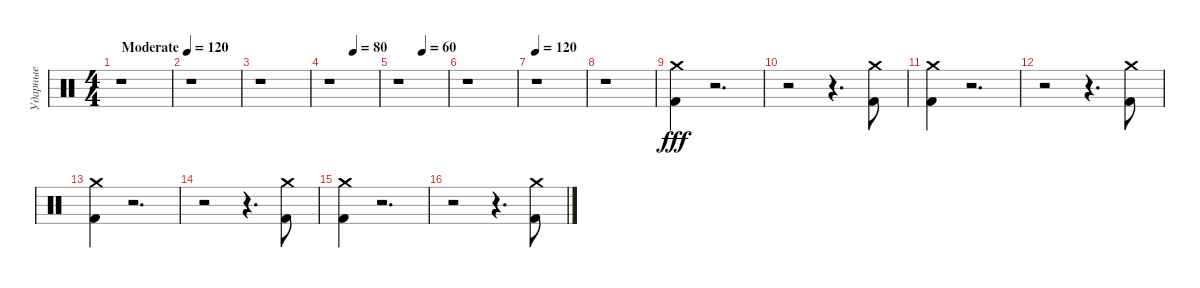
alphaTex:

\track ("Ударные" "Ударные") {instrument percussion}
\staff {score}
\articulation defaults
\ts (4 4)
\tempo (120 "Moderate")
\clef neutral
\ks c
r.1{dy fff} |
r.1 |
r.1 |
\tempo (80 0.5)
r.1 |
\tempo (60 0.5)
r.1 |
r.1 |
\tempo 120
r.1 |
r.1 |
("Crash medium (hit)" "Kick (hit) 2").4 r.2{d} |
r.2 r.4{d} ("Crash medium (hit)" "Kick (hit) 2").8 |
("Crash medium (hit)" "Kick (hit) 2").4 r.2{d} |
r.2 r.4{d} ("Crash medium (hit)" "Kick (hit) 2").8 |
("Crash medium (hit)" "Kick (hit) 2").4 r.2{d} |
r.2 r.4{d} ("Crash medium (hit)" "Kick (hit) 2").8 |
("Crash medium (hit)" "Kick (hit) 2").4 r.2{d} |
r.2 r.4{d} ("Crash medium (hit)" "Kick (hit) 2").8
